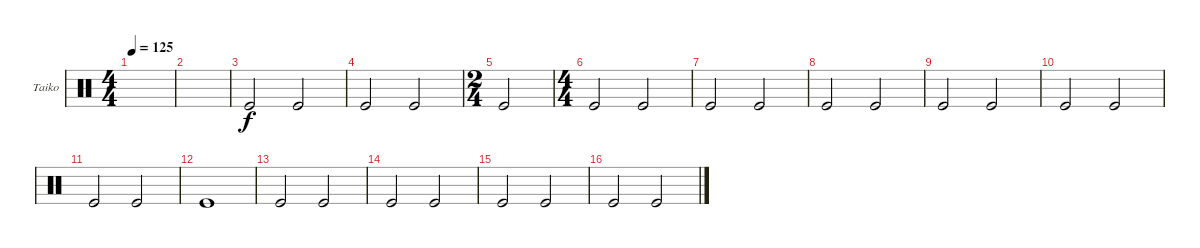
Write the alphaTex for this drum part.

\defaultSystemsLayout 4
\bracketExtendMode groupsimilarinstruments
\firstSystemTrackNameOrientation horizontal
\otherSystemsTrackNameOrientation horizontal
\track ("Taiko Drum" "Taiko") {instrument percussion}
\staff {score}
\articulation defaults
\ts (4 4)
\tempo 125
\clef neutral
\scale
0.333333
\ks c
|
\scale
0.333333 |
\scale
0.262911 "Kick (hit)".2 "Kick (hit)".2 |
\scale
0.262911 "Kick (hit)".2 "Kick (hit)".2 |
\ts (2 4)
\scale
0.474178 "Kick (hit)".2 |
\ts (4 4)
\scale
0.474178 "Kick (hit)".2 "Kick (hit)".2 |
\scale
0.262911 "Kick (hit)".2 "Kick (hit)".2 |
\scale
0.262911 "Kick (hit)".2 "Kick (hit)".2 |
\scale
0.333333 "Kick (hit)".2 "Kick (hit)".2 |
\scale
0.333333 "Kick (hit)".2 "Kick (hit)".2 |
\scale
0.333333 "Kick (hit)".2 "Kick (hit)".2 |
\scale
0.333333 "Kick (hit)".1 |
\scale
0.333333 "Kick (hit)".2 "Kick (hit)".2 |
\scale
0.333333 "Kick (hit)".2 "Kick (hit)".2 |
\scale
0.333333 "Kick (hit)".2 "Kick (hit)".2 |
\scale
0.333333 "Kick (hit)".2 "Kick (hit)".2
